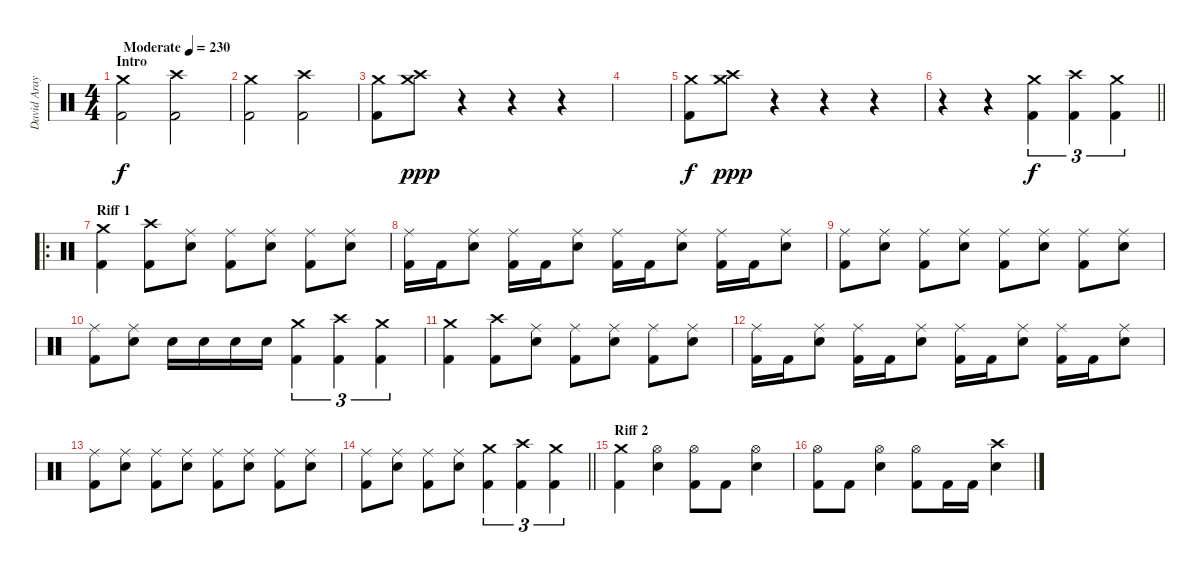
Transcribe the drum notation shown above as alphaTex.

\track ("David Araya" "David Aray") {instrument percussion}
\staff {score}
\articulation defaults
\ts (4 4)
\section ("" "Intro")
\tempo (230 "Moderate")
\clef neutral
\ks c
("Crash medium (hit)" "Kick (hit) 2").2{dy f} ("Crash high (hit)" "Kick (hit) 2").2 |
("Crash medium (hit)" "Kick (hit) 2").2 ("Crash high (hit)" "Kick (hit) 2").2 |
("Crash medium (hit)" "Kick (hit) 2").8 ("Crash medium (hit)" "Crash high (hit)").8{dy ppp} r.4 r.4 r.4 |
|
("Crash medium (hit)" "Kick (hit) 2").8{dy f} ("Crash medium (hit)" "Crash high (hit)").8{dy ppp} r.4 r.4 r.4 |
\barLineRight lightlight
r.4 r.4 ("Crash medium (hit)" "Kick (hit) 2").4{tu (3 2) dy f} ("Crash high (hit)" "Kick (hit) 2").4{tu (3 2)} ("Crash medium (hit)" "Kick (hit) 2").4{tu (3 2)} |
\ro
\section ("" "Riff 1")
("Crash medium (hit)" "Kick (hit) 2").4 ("Crash high (hit)" "Kick (hit) 2").8 ("Ride (middle)" "Electric Snare (hit)").8 ("Ride (middle)" "Kick (hit) 2").8 ("Ride (middle)" "Electric Snare (hit)").8 ("Ride (middle)" "Kick (hit) 2").8 ("Ride (middle)" "Electric Snare (hit)").8 |
("Ride (middle)" "Kick (hit) 2").16 "Kick (hit) 2".16 ("Ride (middle)" "Electric Snare (hit)").8 ("Ride (middle)" "Kick (hit) 2").16 "Kick (hit) 2".16 ("Ride (middle)" "Electric Snare (hit)").8 ("Ride (middle)" "Kick (hit) 2").16 "Kick (hit) 2".16 ("Ride (middle)" "Electric Snare (hit)").8 ("Ride (middle)" "Kick (hit) 2").16 "Kick (hit) 2".16 ("Ride (middle)" "Electric Snare (hit)").8 |
("Ride (middle)" "Kick (hit) 2").8 ("Ride (middle)" "Electric Snare (hit)").8 ("Ride (middle)" "Kick (hit) 2").8 ("Ride (middle)" "Electric Snare (hit)").8 ("Ride (middle)" "Kick (hit) 2").8 ("Ride (middle)" "Electric Snare (hit)").8 ("Ride (middle)" "Kick (hit) 2").8 ("Ride (middle)" "Electric Snare (hit)").8 |
("Ride (middle)" "Kick (hit) 2").8 ("Ride (middle)" "Electric Snare (hit)").8 "Electric Snare (hit)".16 "Electric Snare (hit)".16 "Electric Snare (hit)".16 "Electric Snare (hit)".16 ("Crash medium (hit)" "Kick (hit) 2").4{tu (3 2)} ("Crash high (hit)" "Kick (hit) 2").4{tu (3 2)} ("Crash medium (hit)" "Kick (hit) 2").4{tu (3 2)} |
("Crash medium (hit)" "Kick (hit) 2").4 ("Crash high (hit)" "Kick (hit) 2").8 ("Ride (middle)" "Electric Snare (hit)").8 ("Ride (middle)" "Kick (hit) 2").8 ("Ride (middle)" "Electric Snare (hit)").8 ("Ride (middle)" "Kick (hit) 2").8 ("Ride (middle)" "Electric Snare (hit)").8 |
("Ride (middle)" "Kick (hit) 2").16 "Kick (hit) 2".16 ("Ride (middle)" "Electric Snare (hit)").8 ("Ride (middle)" "Kick (hit) 2").16 "Kick (hit) 2".16 ("Ride (middle)" "Electric Snare (hit)").8 ("Ride (middle)" "Kick (hit) 2").16 "Kick (hit) 2".16 ("Ride (middle)" "Electric Snare (hit)").8 ("Ride (middle)" "Kick (hit) 2").16 "Kick (hit) 2".16 ("Ride (middle)" "Electric Snare (hit)").8 |
("Ride (middle)" "Kick (hit) 2").8 ("Ride (middle)" "Electric Snare (hit)").8 ("Ride (middle)" "Kick (hit) 2").8 ("Ride (middle)" "Electric Snare (hit)").8 ("Ride (middle)" "Kick (hit) 2").8 ("Ride (middle)" "Electric Snare (hit)").8 ("Ride (middle)" "Kick (hit) 2").8 ("Ride (middle)" "Electric Snare (hit)").8 |
\barLineRight lightlight
("Ride (middle)" "Kick (hit) 2").8 ("Ride (middle)" "Electric Snare (hit)").8 ("Ride (middle)" "Kick (hit) 2").8 ("Ride (middle)" "Electric Snare (hit)").8 ("Crash medium (hit)" "Kick (hit) 2").4{tu (3 2)} ("Crash high (hit)" "Kick (hit) 2").4{tu (3 2)} ("Crash medium (hit)" "Kick (hit) 2").4{tu (3 2)} |
\section ("" "Riff 2")
("Crash medium (hit)" "Kick (hit) 2").4 ("Hi-Hat (open)" "Electric Snare (hit)").4 ("Hi-Hat (open)" "Kick (hit) 2").8 "Kick (hit) 2".8 ("Hi-Hat (open)" "Electric Snare (hit)").4 |
("Hi-Hat (open)" "Kick (hit) 2").8 "Kick (hit) 2".8 ("Hi-Hat (open)" "Electric Snare (hit)").4 ("Hi-Hat (open)" "Kick (hit) 2").8 "Kick (hit) 2".16 "Kick (hit) 2".16 ("Crash high (hit)" "Electric Snare (hit)").4
